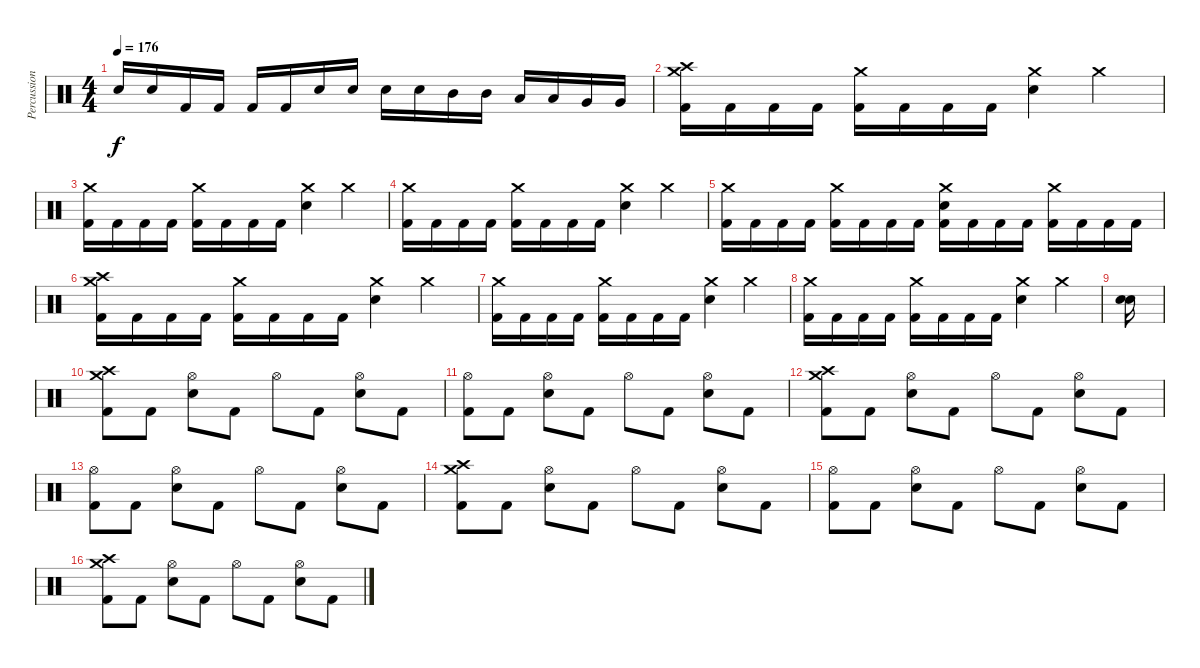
\track ("Percussion" "Percussion") {instrument percussion}
\staff {score}
\articulation defaults
\ts (4 4)
\tempo 176
\clef neutral
\ks c "Snare (hit) 2".16{dy f} "Snare (hit) 2".16 "Kick (hit) 2".16 "Kick (hit) 2".16 "Kick (hit) 2".16 "Kick (hit) 2".16 "Snare (hit) 2".16 "Snare (hit) 2".16 "Snare (hit) 2".16 "Snare (hit) 2".16 "Mid Tom (hit)".16 "Mid Tom (hit)".16 "Low Tom (hit)".16 "Low Tom (hit)".16 "Very Low Tom (hit)".16 "Very Low Tom (hit)".16
|
("Crash high (hit)" "Crash medium (hit)" "Kick (hit) 2").16 "Kick (hit) 2".16 "Kick (hit) 2".16 "Kick (hit) 2".16 ("Crash medium (hit)" "Kick (hit) 2").16 "Kick (hit) 2".16 "Kick (hit) 2".16 "Kick (hit) 2".16 ("Crash medium (hit)" "Snare (hit) 2").4 "Crash medium (hit)".4 |
("Crash medium (hit)" "Kick (hit) 2").16 "Kick (hit) 2".16 "Kick (hit) 2".16 "Kick (hit) 2".16 ("Crash medium (hit)" "Kick (hit) 2").16 "Kick (hit) 2".16 "Kick (hit) 2".16 "Kick (hit) 2".16 ("Crash medium (hit)" "Snare (hit) 2").4 "Crash medium (hit)".4 |
("Crash medium (hit)" "Kick (hit) 2").16 "Kick (hit) 2".16 "Kick (hit) 2".16 "Kick (hit) 2".16 ("Crash medium (hit)" "Kick (hit) 2").16 "Kick (hit) 2".16 "Kick (hit) 2".16 "Kick (hit) 2".16 ("Crash medium (hit)" "Snare (hit) 2").4 "Crash medium (hit)".4 |
("Crash medium (hit)" "Kick (hit) 2").16 "Kick (hit) 2".16 "Kick (hit) 2".16 "Kick (hit) 2".16 ("Crash medium (hit)" "Kick (hit) 2").16 "Kick (hit) 2".16 "Kick (hit) 2".16 "Kick (hit) 2".16 ("Crash medium (hit)" "Snare (hit) 2" "Kick (hit) 2").16 "Kick (hit) 2".16 "Kick (hit) 2".16 "Kick (hit) 2".16 ("Crash medium (hit)" "Kick (hit) 2").16 "Kick (hit) 2".16 "Kick (hit) 2".16 "Kick (hit) 2".16 |
("Crash high (hit)" "Crash medium (hit)" "Kick (hit) 2").16 "Kick (hit) 2".16 "Kick (hit) 2".16 "Kick (hit) 2".16 ("Crash medium (hit)" "Kick (hit) 2").16 "Kick (hit) 2".16 "Kick (hit) 2".16 "Kick (hit) 2".16 ("Crash medium (hit)" "Snare (hit) 2").4 "Crash medium (hit)".4 |
("Crash medium (hit)" "Kick (hit) 2").16 "Kick (hit) 2".16 "Kick (hit) 2".16 "Kick (hit) 2".16 ("Crash medium (hit)" "Kick (hit) 2").16 "Kick (hit) 2".16 "Kick (hit) 2".16 "Kick (hit) 2".16 ("Crash medium (hit)" "Snare (hit) 2").4 "Crash medium (hit)".4 |
("Crash medium (hit)" "Kick (hit) 2").16 "Kick (hit) 2".16 "Kick (hit) 2".16 "Kick (hit) 2".16 ("Crash medium (hit)" "Kick (hit) 2").16 "Kick (hit) 2".16 "Kick (hit) 2".16 "Kick (hit) 2".16 ("Crash medium (hit)" "Snare (hit) 2").4 "Crash medium (hit)".4 |
("Snare (hit) 2" "Snare (hit) 2").16 |
("Crash high (hit)" "Crash medium (hit)" "Kick (hit) 2").8 "Kick (hit) 2".8 ("Hi-Hat (open)" "Snare (hit) 2").8 "Kick (hit) 2".8 "Hi-Hat (open)".8 "Kick (hit) 2".8 ("Hi-Hat (open)" "Snare (hit) 2").8 "Kick (hit) 2".8 |
("Hi-Hat (open)" "Kick (hit) 2").8 "Kick (hit) 2".8 ("Hi-Hat (open)" "Snare (hit) 2").8 "Kick (hit) 2".8 "Hi-Hat (open)".8 "Kick (hit) 2".8 ("Hi-Hat (open)" "Snare (hit) 2").8 "Kick (hit) 2".8 |
("Crash high (hit)" "Crash medium (hit)" "Kick (hit) 2").8 "Kick (hit) 2".8 ("Hi-Hat (open)" "Snare (hit) 2").8 "Kick (hit) 2".8 "Hi-Hat (open)".8 "Kick (hit) 2".8 ("Hi-Hat (open)" "Snare (hit) 2").8 "Kick (hit) 2".8 |
("Hi-Hat (open)" "Kick (hit) 2").8 "Kick (hit) 2".8 ("Hi-Hat (open)" "Snare (hit) 2").8 "Kick (hit) 2".8 "Hi-Hat (open)".8 "Kick (hit) 2".8 ("Hi-Hat (open)" "Snare (hit) 2").8 "Kick (hit) 2".8 |
("Crash high (hit)" "Crash medium (hit)" "Kick (hit) 2").8 "Kick (hit) 2".8 ("Hi-Hat (open)" "Snare (hit) 2").8 "Kick (hit) 2".8 "Hi-Hat (open)".8 "Kick (hit) 2".8 ("Hi-Hat (open)" "Snare (hit) 2").8 "Kick (hit) 2".8 |
("Hi-Hat (open)" "Kick (hit) 2").8 "Kick (hit) 2".8 ("Hi-Hat (open)" "Snare (hit) 2").8 "Kick (hit) 2".8 "Hi-Hat (open)".8 "Kick (hit) 2".8 ("Hi-Hat (open)" "Snare (hit) 2").8 "Kick (hit) 2".8 |
("Crash high (hit)" "Crash medium (hit)" "Kick (hit) 2").8 "Kick (hit) 2".8 ("Hi-Hat (open)" "Snare (hit) 2").8 "Kick (hit) 2".8 "Hi-Hat (open)".8 "Kick (hit) 2".8 ("Hi-Hat (open)" "Snare (hit) 2").8 "Kick (hit) 2".8
